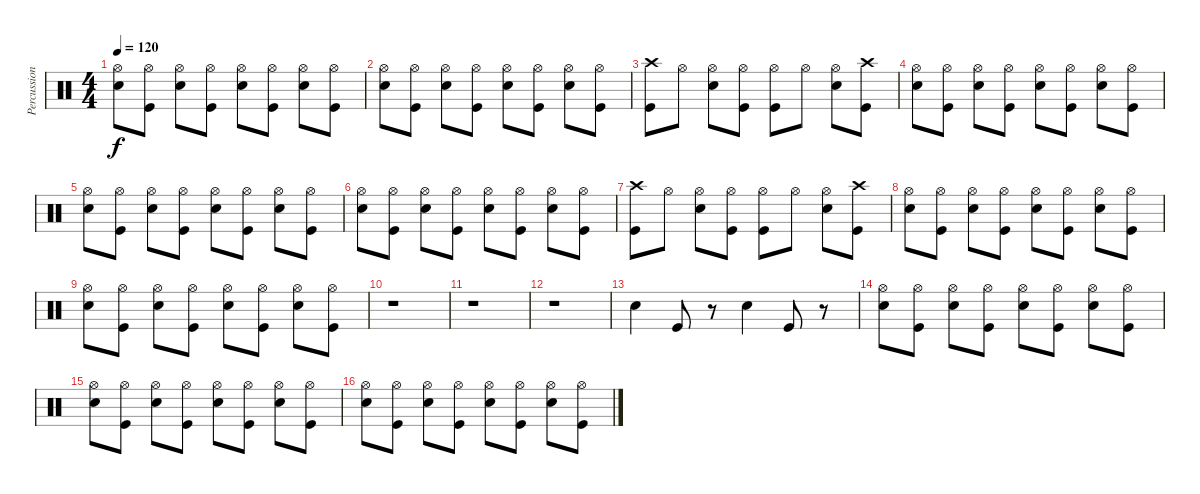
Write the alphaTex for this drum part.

\track ("Percussion" "Percussion") {instrument percussion}
\staff {score}
\articulation defaults
\ts (4 4)
\tempo 120
\clef neutral
\ks c
("Hi-Hat (open)" "Snare (hit) 2").8{dy f} ("Hi-Hat (open)" "Kick (hit)").8 ("Hi-Hat (open)" "Snare (hit) 2").8 ("Hi-Hat (open)" "Kick (hit)").8 ("Hi-Hat (open)" "Snare (hit) 2").8 ("Hi-Hat (open)" "Kick (hit)").8 ("Hi-Hat (open)" "Snare (hit) 2").8 ("Hi-Hat (open)" "Kick (hit)").8 |
("Hi-Hat (open)" "Snare (hit) 2").8 ("Hi-Hat (open)" "Kick (hit)").8 ("Hi-Hat (open)" "Snare (hit) 2").8 ("Hi-Hat (open)" "Kick (hit)").8 ("Hi-Hat (open)" "Snare (hit) 2").8 ("Hi-Hat (open)" "Kick (hit)").8 ("Hi-Hat (open)" "Snare (hit) 2").8 ("Hi-Hat (open)" "Kick (hit)").8 |
("Crash high (hit)" "Kick (hit)").8 "Hi-Hat (open)".8 ("Hi-Hat (open)" "Snare (hit) 2").8 ("Hi-Hat (open)" "Kick (hit)").8 ("Hi-Hat (open)" "Kick (hit)").8 "Hi-Hat (open)".8 ("Hi-Hat (open)" "Snare (hit) 2").8 ("Crash high (hit)" "Kick (hit)").8 |
("Hi-Hat (open)" "Snare (hit) 2").8 ("Hi-Hat (open)" "Kick (hit)").8 ("Hi-Hat (open)" "Snare (hit) 2").8 ("Hi-Hat (open)" "Kick (hit)").8 ("Hi-Hat (open)" "Snare (hit) 2").8 ("Hi-Hat (open)" "Kick (hit)").8 ("Hi-Hat (open)" "Snare (hit) 2").8 ("Hi-Hat (open)" "Kick (hit)").8 |
("Hi-Hat (open)" "Snare (hit) 2").8 ("Hi-Hat (open)" "Kick (hit)").8 ("Hi-Hat (open)" "Snare (hit) 2").8 ("Hi-Hat (open)" "Kick (hit)").8 ("Hi-Hat (open)" "Snare (hit) 2").8 ("Hi-Hat (open)" "Kick (hit)").8 ("Hi-Hat (open)" "Snare (hit) 2").8 ("Hi-Hat (open)" "Kick (hit)").8 |
("Hi-Hat (open)" "Snare (hit) 2").8 ("Hi-Hat (open)" "Kick (hit)").8 ("Hi-Hat (open)" "Snare (hit) 2").8 ("Hi-Hat (open)" "Kick (hit)").8 ("Hi-Hat (open)" "Snare (hit) 2").8 ("Hi-Hat (open)" "Kick (hit)").8 ("Hi-Hat (open)" "Snare (hit) 2").8 ("Hi-Hat (open)" "Kick (hit)").8 |
("Crash high (hit)" "Kick (hit)").8 "Hi-Hat (open)".8 ("Hi-Hat (open)" "Snare (hit) 2").8 ("Hi-Hat (open)" "Kick (hit)").8 ("Hi-Hat (open)" "Kick (hit)").8 "Hi-Hat (open)".8 ("Hi-Hat (open)" "Snare (hit) 2").8 ("Crash high (hit)" "Kick (hit)").8 |
("Hi-Hat (open)" "Snare (hit) 2").8 ("Hi-Hat (open)" "Kick (hit)").8 ("Hi-Hat (open)" "Snare (hit) 2").8 ("Hi-Hat (open)" "Kick (hit)").8 ("Hi-Hat (open)" "Snare (hit) 2").8 ("Hi-Hat (open)" "Kick (hit)").8 ("Hi-Hat (open)" "Snare (hit) 2").8 ("Hi-Hat (open)" "Kick (hit)").8 |
("Hi-Hat (open)" "Snare (hit) 2").8 ("Hi-Hat (open)" "Kick (hit)").8 ("Hi-Hat (open)" "Snare (hit) 2").8 ("Hi-Hat (open)" "Kick (hit)").8 ("Hi-Hat (open)" "Snare (hit) 2").8 ("Hi-Hat (open)" "Kick (hit)").8 ("Hi-Hat (open)" "Snare (hit) 2").8 ("Hi-Hat (open)" "Kick (hit)").8 |
r.1 |
r.1 |
r.1 |
"Snare (hit) 2".4 "Kick (hit)".8 r.8 "Snare (hit) 2".4 "Kick (hit)".8 r.8 |
("Hi-Hat (open)" "Snare (hit) 2").8 ("Hi-Hat (open)" "Kick (hit)").8 ("Hi-Hat (open)" "Snare (hit) 2").8 ("Hi-Hat (open)" "Kick (hit)").8 ("Hi-Hat (open)" "Snare (hit) 2").8 ("Hi-Hat (open)" "Kick (hit)").8 ("Hi-Hat (open)" "Snare (hit) 2").8 ("Hi-Hat (open)" "Kick (hit)").8 |
("Hi-Hat (open)" "Snare (hit) 2").8 ("Hi-Hat (open)" "Kick (hit)").8 ("Hi-Hat (open)" "Snare (hit) 2").8 ("Hi-Hat (open)" "Kick (hit)").8 ("Hi-Hat (open)" "Snare (hit) 2").8 ("Hi-Hat (open)" "Kick (hit)").8 ("Hi-Hat (open)" "Snare (hit) 2").8 ("Hi-Hat (open)" "Kick (hit)").8 |
("Hi-Hat (open)" "Snare (hit) 2").8 ("Hi-Hat (open)" "Kick (hit)").8 ("Hi-Hat (open)" "Snare (hit) 2").8 ("Hi-Hat (open)" "Kick (hit)").8 ("Hi-Hat (open)" "Snare (hit) 2").8 ("Hi-Hat (open)" "Kick (hit)").8 ("Hi-Hat (open)" "Snare (hit) 2").8 ("Hi-Hat (open)" "Kick (hit)").8
